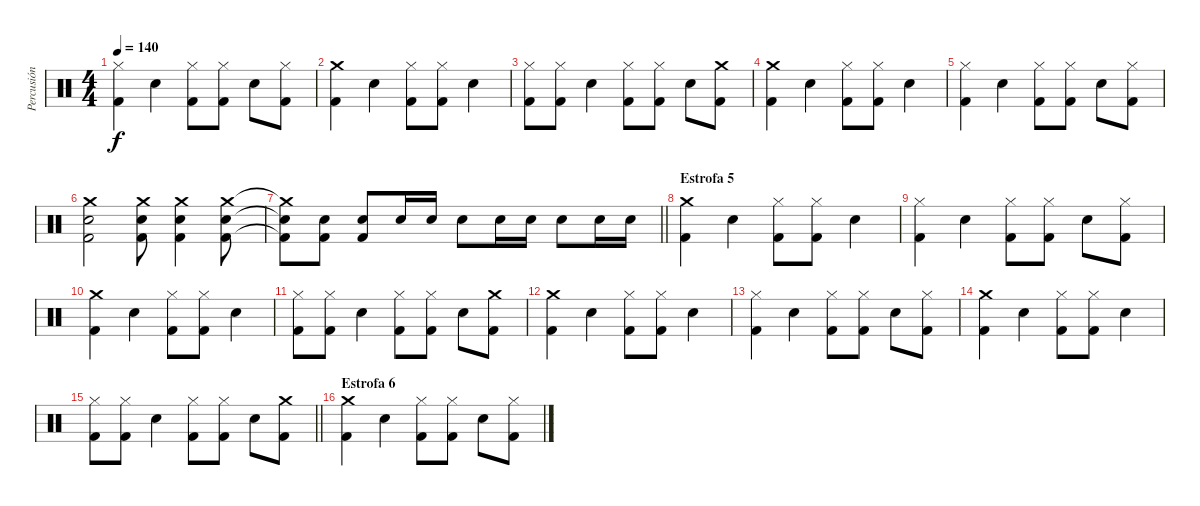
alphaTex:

\track ("Percusión" "Percusión") {instrument percussion}
\staff {score}
\articulation defaults
\ts (4 4)
\tempo 140
\clef neutral
\ks c
("Hi-Hat (closed)" "Kick (hit) 2").4{dy f} "Snare (hit) 2".4 ("Hi-Hat (closed)" "Kick (hit) 2").8 ("Hi-Hat (closed)" "Kick (hit) 2").8 "Snare (hit) 2".8 ("Hi-Hat (closed)" "Kick (hit) 2").8 |
("Crash medium (hit)" "Kick (hit) 2").4 "Snare (hit) 2".4 ("Hi-Hat (closed)" "Kick (hit) 2").8 ("Hi-Hat (closed)" "Kick (hit) 2").8 "Snare (hit) 2".4 |
("Hi-Hat (closed)" "Kick (hit) 2").8 ("Hi-Hat (closed)" "Kick (hit) 2").8 "Snare (hit) 2".4 ("Hi-Hat (closed)" "Kick (hit) 2").8 ("Hi-Hat (closed)" "Kick (hit) 2").8 "Snare (hit) 2".8 ("Crash medium (hit)" "Kick (hit) 2").8 |
("Crash medium (hit)" "Kick (hit) 2").4 "Snare (hit) 2".4 ("Hi-Hat (closed)" "Kick (hit) 2").8 ("Hi-Hat (closed)" "Kick (hit) 2").8 "Snare (hit) 2".4 |
("Hi-Hat (closed)" "Kick (hit) 2").4 "Snare (hit) 2".4 ("Hi-Hat (closed)" "Kick (hit) 2").8 ("Hi-Hat (closed)" "Kick (hit) 2").8 "Snare (hit) 2".8 ("Hi-Hat (closed)" "Kick (hit) 2").8 |
("Crash medium (hit)" "Snare (hit) 2" "Kick (hit) 2").2 ("Crash medium (hit)" "Snare (hit) 2" "Kick (hit) 2").8 ("Crash medium (hit)" "Snare (hit) 2" "Kick (hit) 2").4 ("Crash medium (hit)" "Snare (hit) 2" "Kick (hit) 2").8 |
\barLineRight lightlight
("Crash medium (hit)"{t} "Snare (hit) 2"{t} "Kick (hit) 2"{t}).8 ("Snare (hit) 2" "Kick (hit) 2").8 ("Snare (hit) 2" "Kick (hit) 2").8 "Snare (hit) 2".16 "Snare (hit) 2".16 "Snare (hit) 2".8 "Snare (hit) 2".16 "Snare (hit) 2".16 "Snare (hit) 2".8 "Snare (hit) 2".16 "Snare (hit) 2".16 |
\section ("" "Estrofa 5")
("Crash medium (hit)" "Kick (hit) 2").4 "Snare (hit) 2".4 ("Hi-Hat (closed)" "Kick (hit) 2").8 ("Hi-Hat (closed)" "Kick (hit) 2").8 "Snare (hit) 2".4 |
("Hi-Hat (closed)" "Kick (hit) 2").4 "Snare (hit) 2".4 ("Hi-Hat (closed)" "Kick (hit) 2").8 ("Hi-Hat (closed)" "Kick (hit) 2").8 "Snare (hit) 2".8 ("Hi-Hat (closed)" "Kick (hit) 2").8 |
("Crash medium (hit)" "Kick (hit) 2").4 "Snare (hit) 2".4 ("Hi-Hat (closed)" "Kick (hit) 2").8 ("Hi-Hat (closed)" "Kick (hit) 2").8 "Snare (hit) 2".4 |
("Hi-Hat (closed)" "Kick (hit) 2").8 ("Hi-Hat (closed)" "Kick (hit) 2").8 "Snare (hit) 2".4 ("Hi-Hat (closed)" "Kick (hit) 2").8 ("Hi-Hat (closed)" "Kick (hit) 2").8 "Snare (hit) 2".8 ("Crash medium (hit)" "Kick (hit) 2").8 |
("Crash medium (hit)" "Kick (hit) 2").4 "Snare (hit) 2".4 ("Hi-Hat (closed)" "Kick (hit) 2").8 ("Hi-Hat (closed)" "Kick (hit) 2").8 "Snare (hit) 2".4 |
("Hi-Hat (closed)" "Kick (hit) 2").4 "Snare (hit) 2".4 ("Hi-Hat (closed)" "Kick (hit) 2").8 ("Hi-Hat (closed)" "Kick (hit) 2").8 "Snare (hit) 2".8 ("Hi-Hat (closed)" "Kick (hit) 2").8 |
("Crash medium (hit)" "Kick (hit) 2").4 "Snare (hit) 2".4 ("Hi-Hat (closed)" "Kick (hit) 2").8 ("Hi-Hat (closed)" "Kick (hit) 2").8 "Snare (hit) 2".4 |
\barLineRight lightlight
("Hi-Hat (closed)" "Kick (hit) 2").8 ("Hi-Hat (closed)" "Kick (hit) 2").8 "Snare (hit) 2".4 ("Hi-Hat (closed)" "Kick (hit) 2").8 ("Hi-Hat (closed)" "Kick (hit) 2").8 "Snare (hit) 2".8 ("Crash medium (hit)" "Kick (hit) 2").8 |
\section ("" "Estrofa 6")
("Crash medium (hit)" "Kick (hit) 2").4 "Snare (hit) 2".4 ("Hi-Hat (closed)" "Kick (hit) 2").8 ("Hi-Hat (closed)" "Kick (hit) 2").8 "Snare (hit) 2".8 ("Hi-Hat (closed)" "Kick (hit) 2").8
